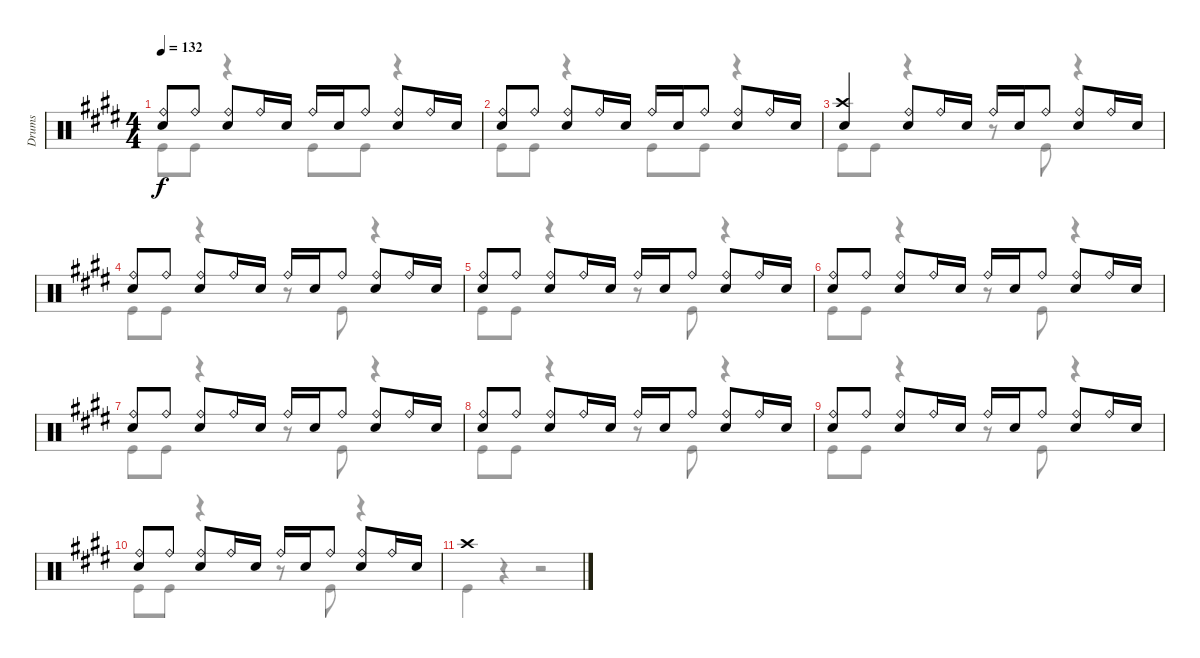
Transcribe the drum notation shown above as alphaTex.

\track ("Drums" "Drums") {instrument percussion}
\staff {score}
\articulation defaults
\voice
\ts (4 4)
\tempo 132
\clef neutral
\ks e
("Snare (hit) 2" "Ride (bell)").8{dy f} "Ride (bell)".8 ("Ride (bell)" "Snare (hit) 2").8 "Ride (bell)".16 "Snare (hit) 2".16 "Ride (bell)".16 "Snare (hit) 2".16 "Ride (bell)".8 ("Ride (bell)" "Snare (hit) 2").8 "Ride (bell)".16 "Snare (hit) 2".16 |
("Snare (hit) 2" "Ride (bell)").8 "Ride (bell)".8 ("Ride (bell)" "Snare (hit) 2").8 "Ride (bell)".16 "Snare (hit) 2".16 "Ride (bell)".16 "Snare (hit) 2".16 "Ride (bell)".8 ("Ride (bell)" "Snare (hit) 2").8 "Ride (bell)".16 "Snare (hit) 2".16 |
("Snare (hit) 2" "Crash high (hit)").4 ("Ride (bell)" "Snare (hit) 2").8 "Ride (bell)".16 "Snare (hit) 2".16 "Ride (bell)".16 "Snare (hit) 2".16 "Ride (bell)".8 ("Ride (bell)" "Snare (hit) 2").8 "Ride (bell)".16 "Snare (hit) 2".16 |
("Snare (hit) 2" "Ride (bell)").8 "Ride (bell)".8 ("Ride (bell)" "Snare (hit) 2").8 "Ride (bell)".16 "Snare (hit) 2".16 "Ride (bell)".16 "Snare (hit) 2".16 "Ride (bell)".8 ("Ride (bell)" "Snare (hit) 2").8 "Ride (bell)".16 "Snare (hit) 2".16 |
("Snare (hit) 2" "Ride (bell)").8 "Ride (bell)".8 ("Ride (bell)" "Snare (hit) 2").8 "Ride (bell)".16 "Snare (hit) 2".16 "Ride (bell)".16 "Snare (hit) 2".16 "Ride (bell)".8 ("Ride (bell)" "Snare (hit) 2").8 "Ride (bell)".16 "Snare (hit) 2".16 |
("Snare (hit) 2" "Ride (bell)").8 "Ride (bell)".8 ("Ride (bell)" "Snare (hit) 2").8 "Ride (bell)".16 "Snare (hit) 2".16 "Ride (bell)".16 "Snare (hit) 2".16 "Ride (bell)".8 ("Ride (bell)" "Snare (hit) 2").8 "Ride (bell)".16 "Snare (hit) 2".16 |
("Snare (hit) 2" "Ride (bell)").8 "Ride (bell)".8 ("Ride (bell)" "Snare (hit) 2").8 "Ride (bell)".16 "Snare (hit) 2".16 "Ride (bell)".16 "Snare (hit) 2".16 "Ride (bell)".8 ("Ride (bell)" "Snare (hit) 2").8 "Ride (bell)".16 "Snare (hit) 2".16 |
("Snare (hit) 2" "Ride (bell)").8 "Ride (bell)".8 ("Ride (bell)" "Snare (hit) 2").8 "Ride (bell)".16 "Snare (hit) 2".16 "Ride (bell)".16 "Snare (hit) 2".16 "Ride (bell)".8 ("Ride (bell)" "Snare (hit) 2").8 "Ride (bell)".16 "Snare (hit) 2".16 |
("Snare (hit) 2" "Ride (bell)").8 "Ride (bell)".8 ("Ride (bell)" "Snare (hit) 2").8 "Ride (bell)".16 "Snare (hit) 2".16 "Ride (bell)".16 "Snare (hit) 2".16 "Ride (bell)".8 ("Ride (bell)" "Snare (hit) 2").8 "Ride (bell)".16 "Snare (hit) 2".16 |
("Snare (hit) 2" "Ride (bell)").8 "Ride (bell)".8 ("Ride (bell)" "Snare (hit) 2").8 "Ride (bell)".16 "Snare (hit) 2".16 "Ride (bell)".16 "Snare (hit) 2".16 "Ride (bell)".8 ("Ride (bell)" "Snare (hit) 2").8 "Ride (bell)".16 "Snare (hit) 2".16 |
"Crash high (hit)".1 |
|
|
|
|
\voice
\clef neutral
\ottava regular
\simile none
\ks e "Kick (hit)".8{dy f} "Kick (hit)".8
r.4 "Kick (hit)".8 "Kick (hit)".8 r.4 |
"Kick (hit)".8 "Kick (hit)".8 r.4 "Kick (hit)".8 "Kick (hit)".8 r.4 |
"Kick (hit)".8 "Kick (hit)".8 r.4 r.8 "Kick (hit)".8 r.4 |
"Kick (hit)".8 "Kick (hit)".8 r.4 r.8 "Kick (hit)".8 r.4 |
"Kick (hit)".8 "Kick (hit)".8 r.4 r.8 "Kick (hit)".8 r.4 |
"Kick (hit)".8 "Kick (hit)".8 r.4 r.8 "Kick (hit)".8 r.4 |
"Kick (hit)".8 "Kick (hit)".8 r.4 r.8 "Kick (hit)".8 r.4 |
"Kick (hit)".8 "Kick (hit)".8 r.4 r.8 "Kick (hit)".8 r.4 |
"Kick (hit)".8 "Kick (hit)".8 r.4 r.8 "Kick (hit)".8 r.4 |
"Kick (hit)".8 "Kick (hit)".8 r.4 r.8 "Kick (hit)".8 r.4 |
"Kick (hit)".4 r.4 r.2 |
|
|
|
|
